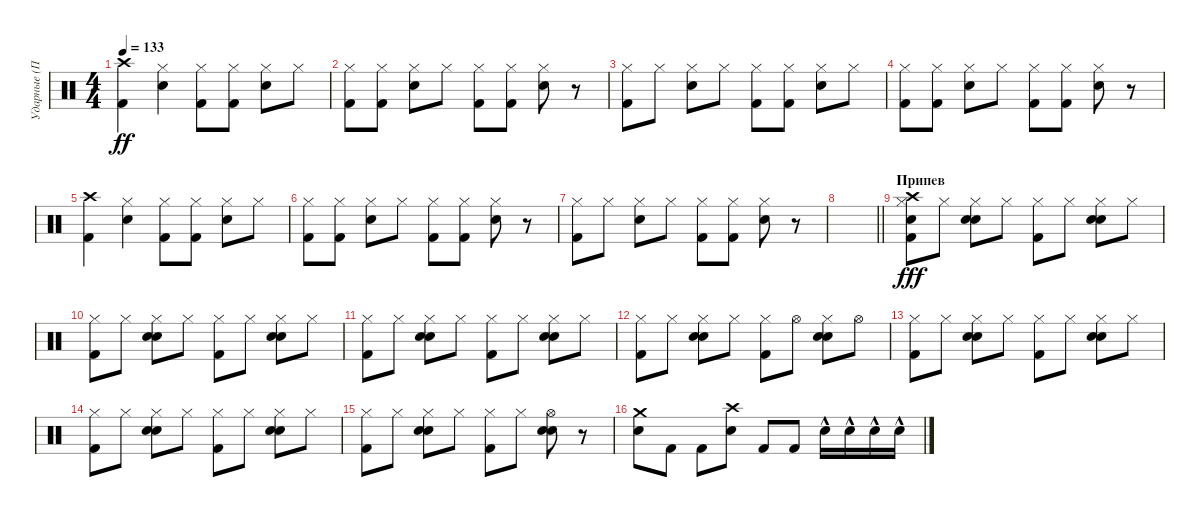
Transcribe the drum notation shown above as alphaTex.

\track ("Ударные (Пацан в Дредах)" "Ударные (П") {instrument percussion}
\staff {score}
\articulation defaults
\ts (4 4)
\tempo 133
\clef neutral
\ks c
("Crash high (hit)" "Kick (hit) 2").4{dy ff} ("Hi-Hat (closed)" "Electric Snare (hit)").4 ("Hi-Hat (closed)" "Kick (hit) 2").8 ("Hi-Hat (closed)" "Kick (hit) 2").8 ("Hi-Hat (closed)" "Electric Snare (hit)").8 "Hi-Hat (closed)".8 |
("Hi-Hat (closed)" "Kick (hit) 2").8 ("Hi-Hat (closed)" "Kick (hit) 2").8 ("Hi-Hat (closed)" "Electric Snare (hit)").8 "Hi-Hat (closed)".8 ("Hi-Hat (closed)" "Kick (hit) 2").8 ("Hi-Hat (closed)" "Kick (hit) 2").8 ("Hi-Hat (closed)" "Electric Snare (hit)").8 r.8 |
("Hi-Hat (closed)" "Kick (hit) 2").8 "Hi-Hat (closed)".8 ("Hi-Hat (closed)" "Electric Snare (hit)").8 "Hi-Hat (closed)".8 ("Hi-Hat (closed)" "Kick (hit) 2").8 ("Hi-Hat (closed)" "Kick (hit) 2").8 ("Hi-Hat (closed)" "Electric Snare (hit)").8 "Hi-Hat (closed)".8 |
("Hi-Hat (closed)" "Kick (hit) 2").8 ("Hi-Hat (closed)" "Kick (hit) 2").8 ("Hi-Hat (closed)" "Electric Snare (hit)").8 "Hi-Hat (closed)".8 ("Hi-Hat (closed)" "Kick (hit) 2").8 ("Hi-Hat (closed)" "Kick (hit) 2").8 ("Hi-Hat (closed)" "Electric Snare (hit)").8 r.8 |
("Crash high (hit)" "Kick (hit) 2").4 ("Hi-Hat (closed)" "Electric Snare (hit)").4 ("Hi-Hat (closed)" "Kick (hit) 2").8 ("Hi-Hat (closed)" "Kick (hit) 2").8 ("Hi-Hat (closed)" "Electric Snare (hit)").8 "Hi-Hat (closed)".8 |
("Hi-Hat (closed)" "Kick (hit) 2").8 ("Hi-Hat (closed)" "Kick (hit) 2").8 ("Hi-Hat (closed)" "Electric Snare (hit)").8 "Hi-Hat (closed)".8 ("Hi-Hat (closed)" "Kick (hit) 2").8 ("Hi-Hat (closed)" "Kick (hit) 2").8 ("Hi-Hat (closed)" "Electric Snare (hit)").8 r.8 |
("Hi-Hat (closed)" "Kick (hit) 2").8 "Hi-Hat (closed)".8 ("Hi-Hat (closed)" "Electric Snare (hit)").8 "Hi-Hat (closed)".8 ("Hi-Hat (closed)" "Kick (hit) 2").8 ("Hi-Hat (closed)" "Kick (hit) 2").8 ("Hi-Hat (closed)" "Electric Snare (hit)").8 r.8 |
\barLineRight lightlight
|
\section ("" "Припев")
("Crash high (hit)" "Hi-Hat (closed)" "Snare (hit)" "Kick (hit) 2").8{dy fff} "Hi-Hat (closed)".8 ("Hi-Hat (closed)" "Electric Snare (hit)" "Hand Clap (hit)").8 "Hi-Hat (closed)".8 ("Hi-Hat (closed)" "Kick (hit) 2").8 "Hi-Hat (closed)".8 ("Hi-Hat (closed)" "Electric Snare (hit)" "Hand Clap (hit)").8 "Hi-Hat (closed)".8 |
("Hi-Hat (closed)" "Kick (hit) 2").8 "Hi-Hat (closed)".8 ("Hi-Hat (closed)" "Electric Snare (hit)" "Hand Clap (hit)").8 "Hi-Hat (closed)".8 ("Hi-Hat (closed)" "Kick (hit) 2").8 "Hi-Hat (closed)".8 ("Hi-Hat (closed)" "Electric Snare (hit)" "Hand Clap (hit)").8 "Hi-Hat (closed)".8 |
("Hi-Hat (closed)" "Kick (hit) 2").8 "Hi-Hat (closed)".8 ("Hi-Hat (closed)" "Electric Snare (hit)" "Hand Clap (hit)").8 "Hi-Hat (closed)".8 ("Hi-Hat (closed)" "Kick (hit) 2").8 "Hi-Hat (closed)".8 ("Hi-Hat (closed)" "Electric Snare (hit)" "Hand Clap (hit)").8 "Hi-Hat (closed)".8 |
("Hi-Hat (closed)" "Kick (hit) 2").8 "Hi-Hat (closed)".8 ("Hi-Hat (closed)" "Electric Snare (hit)" "Hand Clap (hit)").8 "Hi-Hat (closed)".8 ("Hi-Hat (closed)" "Kick (hit) 2").8 "Hi-Hat (open)".8 ("Hi-Hat (closed)" "Electric Snare (hit)" "Hand Clap (hit)").8 "Hi-Hat (open)".8 |
("Hi-Hat (closed)" "Kick (hit) 2").8 "Hi-Hat (closed)".8 ("Hi-Hat (closed)" "Electric Snare (hit)" "Hand Clap (hit)").8 "Hi-Hat (closed)".8 ("Hi-Hat (closed)" "Kick (hit) 2").8 "Hi-Hat (closed)".8 ("Hi-Hat (closed)" "Electric Snare (hit)" "Hand Clap (hit)").8 "Hi-Hat (closed)".8 |
("Hi-Hat (closed)" "Kick (hit) 2").8 "Hi-Hat (closed)".8 ("Hi-Hat (closed)" "Electric Snare (hit)" "Hand Clap (hit)").8 "Hi-Hat (closed)".8 ("Hi-Hat (closed)" "Kick (hit) 2").8 "Hi-Hat (closed)".8 ("Hi-Hat (closed)" "Electric Snare (hit)" "Hand Clap (hit)").8 "Hi-Hat (closed)".8 |
("Hi-Hat (closed)" "Kick (hit) 2").8 "Hi-Hat (closed)".8 ("Hi-Hat (closed)" "Electric Snare (hit)" "Hand Clap (hit)").8 "Hi-Hat (closed)".8 ("Hi-Hat (closed)" "Kick (hit) 2").8 "Hi-Hat (closed)".8 ("Hi-Hat (open)" "Electric Snare (hit)" "Hand Clap (hit)").8 r.8 |
("Crash medium (hit)" "Electric Snare (hit)").8 "Kick (hit) 2".8 "Kick (hit) 2".8 ("Crash high (hit)" "Electric Snare (hit)").8 "Kick (hit) 2".8 "Kick (hit) 2".8 "Electric Snare (hit)"{hac}.16 "Electric Snare (hit)"{hac}.16 "Electric Snare (hit)"{hac}.16 "Electric Snare (hit)"{hac}.16
